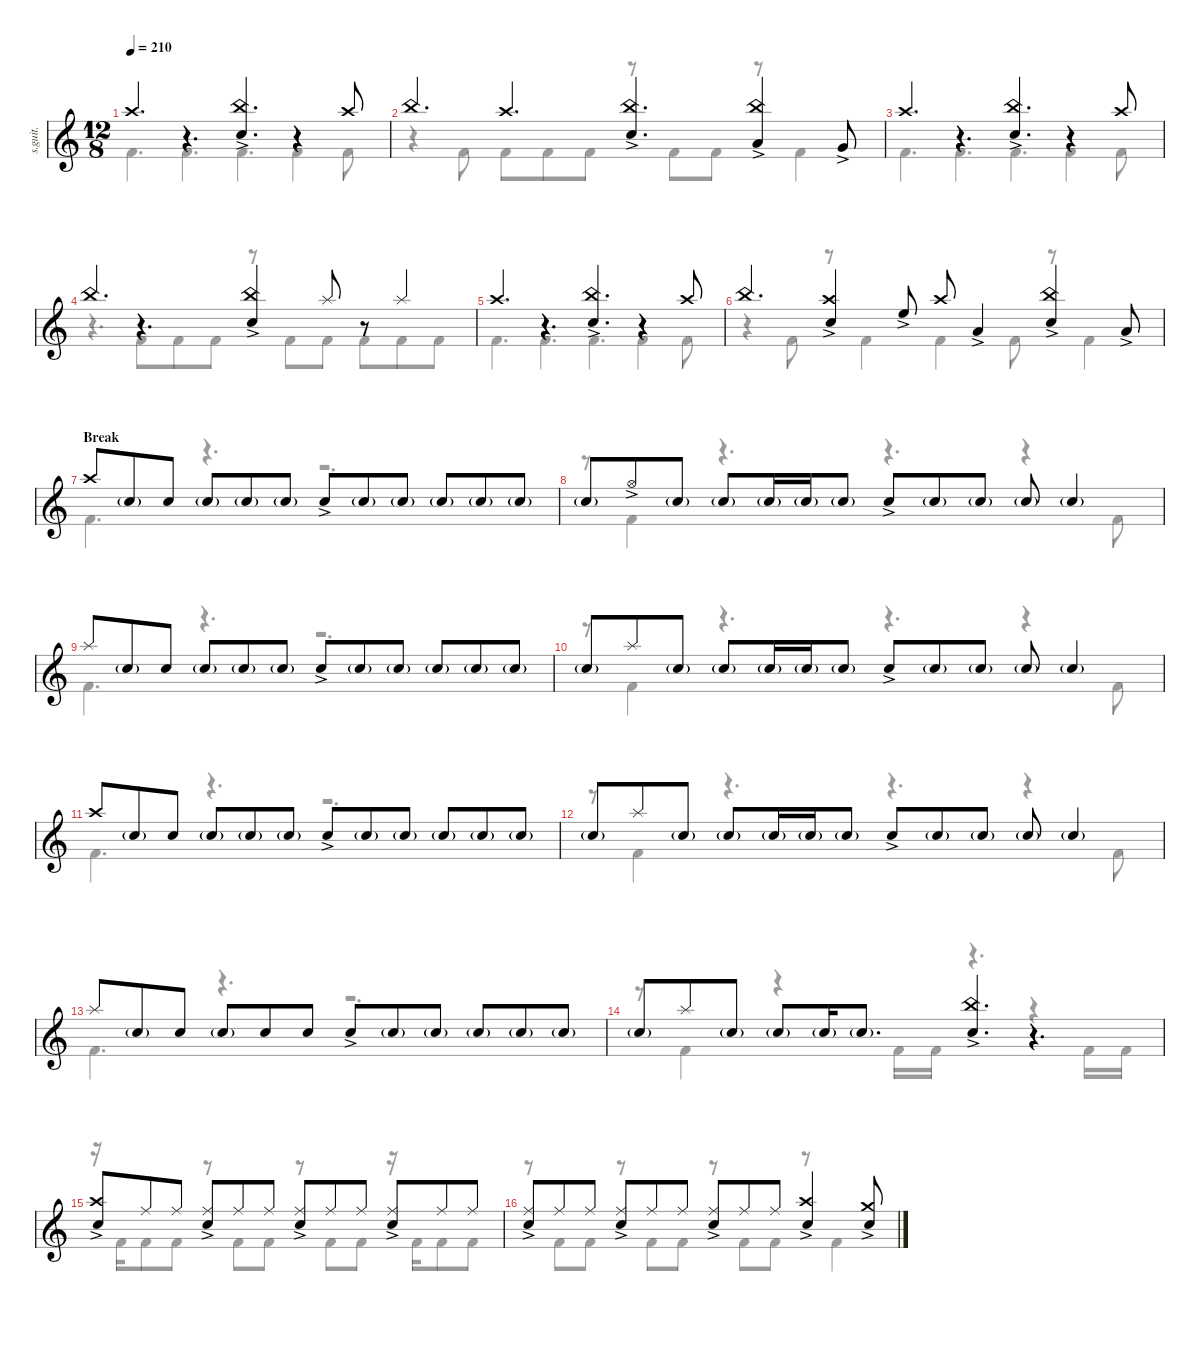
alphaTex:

\defaultSystemsLayout 4
\hideDynamics
\bracketExtendMode nobrackets
\track ("Percussion" "s.guit.") {instrument percussion}
\staff {score}
\articulation defaults
\voice
\ts (12 8)
\tempo 210
\clef g2
\ks c "Crash high (hit)".4{d lyrics (0 "") lyrics (1 "") lyrics (2 "") lyrics (3 "") lyrics (4 "") dy f}
r.4{d} ("China (hit)" "Snare (hit) 2"{ac}).4{d lyrics (0 "") lyrics (1 "") lyrics (2 "") lyrics (3 "") lyrics (4 "")} r.4 "Crash high (hit)".8{lyrics (0 "") lyrics (1 "") lyrics (2 "") lyrics (3 "") lyrics (4 "")} |
"China (hit)".4{d lyrics (0 "") lyrics (1 "") lyrics (2 "") lyrics (3 "") lyrics (4 "")} "Crash high (hit)".4{d lyrics (0 "") lyrics (1 "") lyrics (2 "") lyrics (3 "") lyrics (4 "")} ("China (hit)" "Snare (hit) 2"{ac}).4{d lyrics (0 "") lyrics (1 "") lyrics (2 "") lyrics (3 "") lyrics (4 "")} ("China (hit)" "Low Tom (hit)"{ac}).4{lyrics (0 "") lyrics (1 "") lyrics (2 "") lyrics (3 "") lyrics (4 "")} "Very Low Tom (hit)"{ac}.8{lyrics (0 "") lyrics (1 "") lyrics (2 "") lyrics (3 "") lyrics (4 "") dy mf} |
"Crash high (hit)".4{d lyrics (0 "") lyrics (1 "") lyrics (2 "") lyrics (3 "") lyrics (4 "") dy f} r.4{d} ("China (hit)" "Snare (hit) 2"{ac}).4{d lyrics (0 "") lyrics (1 "") lyrics (2 "") lyrics (3 "") lyrics (4 "")} r.4 "Crash high (hit)".8{lyrics (0 "") lyrics (1 "") lyrics (2 "") lyrics (3 "") lyrics (4 "")} |
"China (hit)".4{d lyrics (0 "") lyrics (1 "") lyrics (2 "") lyrics (3 "") lyrics (4 "")} r.4{d} ("China (hit)" "Snare (hit) 2"{ac}).4{lyrics (0 "") lyrics (1 "") lyrics (2 "") lyrics (3 "") lyrics (4 "")} "Splash (hit)".8{lyrics (0 "") lyrics (1 "") lyrics (2 "") lyrics (3 "") lyrics (4 "")} r.8 "Splash (hit)".4{lyrics (0 "") lyrics (1 "") lyrics (2 "") lyrics (3 "") lyrics (4 "")} |
"Crash high (hit)".4{d lyrics (0 "") lyrics (1 "") lyrics (2 "") lyrics (3 "") lyrics (4 "")} r.4{d} ("China (hit)" "Snare (hit) 2"{ac}).4{d lyrics (0 "") lyrics (1 "") lyrics (2 "") lyrics (3 "") lyrics (4 "")} r.4 "Crash high (hit)".8{lyrics (0 "") lyrics (1 "") lyrics (2 "") lyrics (3 "") lyrics (4 "")} |
"China (hit)".4{d lyrics (0 "") lyrics (1 "") lyrics (2 "") lyrics (3 "") lyrics (4 "")} ("Crash high (hit)" "Snare (hit) 2"{ac}).4{lyrics (0 "") lyrics (1 "") lyrics (2 "") lyrics (3 "") lyrics (4 "")} "High Floor Tom (hit)"{ac}.8{lyrics (0 "") lyrics (1 "") lyrics (2 "") lyrics (3 "") lyrics (4 "") dy mf} "Crash high (hit)".8{lyrics (0 "") lyrics (1 "") lyrics (2 "") lyrics (3 "") lyrics (4 "") dy f} "Low Tom (hit)"{ac}.4{lyrics (0 "") lyrics (1 "") lyrics (2 "") lyrics (3 "") lyrics (4 "") dy mf} ("China (hit)" "Snare (hit) 2"{ac}).4{lyrics (0 "") lyrics (1 "") lyrics (2 "") lyrics (3 "") lyrics (4 "") dy f} "Low Tom (hit)"{ac}.8{lyrics (0 "") lyrics (1 "") lyrics (2 "") lyrics (3 "") lyrics (4 "") dy mf} |
\section ("" "Break")
"Crash high (hit)".8{lyrics (0 "") lyrics (1 "") lyrics (2 "") lyrics (3 "") lyrics (4 "")} "Snare (hit) 2"{g}.8{lyrics (0 "") lyrics (1 "") lyrics (2 "") lyrics (3 "") lyrics (4 "") dy f} "Snare (hit) 2".8{lyrics (0 "") lyrics (1 "") lyrics (2 "") lyrics (3 "") lyrics (4 "") dy mf} "Snare (hit) 2"{g}.8{lyrics (0 "") lyrics (1 "") lyrics (2 "") lyrics (3 "") lyrics (4 "") dy f} "Snare (hit) 2"{g}.8{lyrics (0 "") lyrics (1 "") lyrics (2 "") lyrics (3 "") lyrics (4 "")} "Snare (hit) 2"{g}.8{lyrics (0 "") lyrics (1 "") lyrics (2 "") lyrics (3 "") lyrics (4 "")} "Snare (hit) 2"{ac}.8{lyrics (0 "") lyrics (1 "") lyrics (2 "") lyrics (3 "") lyrics (4 "") dy mp} "Snare (hit) 2"{g}.8{lyrics (0 "") lyrics (1 "") lyrics (2 "") lyrics (3 "") lyrics (4 "") dy f} "Snare (hit) 2"{g}.8{lyrics (0 "") lyrics (1 "") lyrics (2 "") lyrics (3 "") lyrics (4 "")} "Snare (hit) 2"{g}.8{lyrics (0 "") lyrics (1 "") lyrics (2 "") lyrics (3 "") lyrics (4 "")} "Snare (hit) 2"{g}.8{lyrics (0 "") lyrics (1 "") lyrics (2 "") lyrics (3 "") lyrics (4 "")} "Snare (hit) 2"{g}.8{lyrics (0 "") lyrics (1 "") lyrics (2 "") lyrics (3 "") lyrics (4 "")} |
"Snare (hit) 2"{g}.8{lyrics (0 "") lyrics (1 "") lyrics (2 "") lyrics (3 "") lyrics (4 "")} "Hi-Hat (open)"{ac}.8{lyrics (0 "") lyrics (1 "") lyrics (2 "") lyrics (3 "") lyrics (4 "") dy mp} "Snare (hit) 2"{g}.8{lyrics (0 "") lyrics (1 "") lyrics (2 "") lyrics (3 "") lyrics (4 "") dy f} "Snare (hit) 2"{g}.8{lyrics (0 "") lyrics (1 "") lyrics (2 "") lyrics (3 "") lyrics (4 "")} "Snare (hit) 2"{g}.16{lyrics (0 "") lyrics (1 "") lyrics (2 "") lyrics (3 "") lyrics (4 "")} "Snare (hit) 2"{g}.16{lyrics (0 "") lyrics (1 "") lyrics (2 "") lyrics (3 "") lyrics (4 "")} "Snare (hit) 2"{g}.8{lyrics (0 "") lyrics (1 "") lyrics (2 "") lyrics (3 "") lyrics (4 "")} "Snare (hit) 2"{ac}.8{lyrics (0 "") lyrics (1 "") lyrics (2 "") lyrics (3 "") lyrics (4 "") dy mp} "Snare (hit) 2"{g}.8{lyrics (0 "") lyrics (1 "") lyrics (2 "") lyrics (3 "") lyrics (4 "") dy f} "Snare (hit) 2"{g}.8{lyrics (0 "") lyrics (1 "") lyrics (2 "") lyrics (3 "") lyrics (4 "")} "Snare (hit) 2"{g}.8{lyrics (0 "") lyrics (1 "") lyrics (2 "") lyrics (3 "") lyrics (4 "")} "Snare (hit) 2"{g}.4{lyrics (0 "") lyrics (1 "") lyrics (2 "") lyrics (3 "") lyrics (4 "")} |
"Splash (hit)".8{lyrics (0 "") lyrics (1 "") lyrics (2 "") lyrics (3 "") lyrics (4 "") dy mf} "Snare (hit) 2"{g}.8{lyrics (0 "") lyrics (1 "") lyrics (2 "") lyrics (3 "") lyrics (4 "") dy f} "Snare (hit) 2".8{lyrics (0 "") lyrics (1 "") lyrics (2 "") lyrics (3 "") lyrics (4 "") dy mf} "Snare (hit) 2"{g}.8{lyrics (0 "") lyrics (1 "") lyrics (2 "") lyrics (3 "") lyrics (4 "") dy f} "Snare (hit) 2"{g}.8{lyrics (0 "") lyrics (1 "") lyrics (2 "") lyrics (3 "") lyrics (4 "")} "Snare (hit) 2"{g}.8{lyrics (0 "") lyrics (1 "") lyrics (2 "") lyrics (3 "") lyrics (4 "")} "Snare (hit) 2"{ac}.8{lyrics (0 "") lyrics (1 "") lyrics (2 "") lyrics (3 "") lyrics (4 "") dy mp} "Snare (hit) 2"{g}.8{lyrics (0 "") lyrics (1 "") lyrics (2 "") lyrics (3 "") lyrics (4 "") dy f} "Snare (hit) 2"{g}.8{lyrics (0 "") lyrics (1 "") lyrics (2 "") lyrics (3 "") lyrics (4 "")} "Snare (hit) 2"{g}.8{lyrics (0 "") lyrics (1 "") lyrics (2 "") lyrics (3 "") lyrics (4 "")} "Snare (hit) 2"{g}.8{lyrics (0 "") lyrics (1 "") lyrics (2 "") lyrics (3 "") lyrics (4 "")} "Snare (hit) 2"{g}.8{lyrics (0 "") lyrics (1 "") lyrics (2 "") lyrics (3 "") lyrics (4 "")} |
"Snare (hit) 2"{g}.8{lyrics (0 "") lyrics (1 "") lyrics (2 "") lyrics (3 "") lyrics (4 "")} "Splash (hit)".8{lyrics (0 "") lyrics (1 "") lyrics (2 "") lyrics (3 "") lyrics (4 "") dy mf} "Snare (hit) 2"{g}.8{lyrics (0 "") lyrics (1 "") lyrics (2 "") lyrics (3 "") lyrics (4 "") dy f} "Snare (hit) 2"{g}.8{lyrics (0 "") lyrics (1 "") lyrics (2 "") lyrics (3 "") lyrics (4 "")} "Snare (hit) 2"{g}.16{lyrics (0 "") lyrics (1 "") lyrics (2 "") lyrics (3 "") lyrics (4 "")} "Snare (hit) 2"{g}.16{lyrics (0 "") lyrics (1 "") lyrics (2 "") lyrics (3 "") lyrics (4 "")} "Snare (hit) 2"{g}.8{lyrics (0 "") lyrics (1 "") lyrics (2 "") lyrics (3 "") lyrics (4 "")} "Snare (hit) 2"{ac}.8{lyrics (0 "") lyrics (1 "") lyrics (2 "") lyrics (3 "") lyrics (4 "") dy mp} "Snare (hit) 2"{g}.8{lyrics (0 "") lyrics (1 "") lyrics (2 "") lyrics (3 "") lyrics (4 "") dy f} "Snare (hit) 2"{g}.8{lyrics (0 "") lyrics (1 "") lyrics (2 "") lyrics (3 "") lyrics (4 "")} "Snare (hit) 2"{g}.8{lyrics (0 "") lyrics (1 "") lyrics (2 "") lyrics (3 "") lyrics (4 "")} "Snare (hit) 2"{g}.4{lyrics (0 "") lyrics (1 "") lyrics (2 "") lyrics (3 "") lyrics (4 "")} |
"Crash high (hit)".8{lyrics (0 "") lyrics (1 "") lyrics (2 "") lyrics (3 "") lyrics (4 "") dy mf} "Snare (hit) 2"{g}.8{lyrics (0 "") lyrics (1 "") lyrics (2 "") lyrics (3 "") lyrics (4 "") dy f} "Snare (hit) 2".8{lyrics (0 "") lyrics (1 "") lyrics (2 "") lyrics (3 "") lyrics (4 "") dy mf} "Snare (hit) 2"{g}.8{lyrics (0 "") lyrics (1 "") lyrics (2 "") lyrics (3 "") lyrics (4 "") dy f} "Snare (hit) 2"{g}.8{lyrics (0 "") lyrics (1 "") lyrics (2 "") lyrics (3 "") lyrics (4 "")} "Snare (hit) 2"{g}.8{lyrics (0 "") lyrics (1 "") lyrics (2 "") lyrics (3 "") lyrics (4 "")} "Snare (hit) 2"{ac}.8{lyrics (0 "") lyrics (1 "") lyrics (2 "") lyrics (3 "") lyrics (4 "") dy mp} "Snare (hit) 2"{g}.8{lyrics (0 "") lyrics (1 "") lyrics (2 "") lyrics (3 "") lyrics (4 "") dy f} "Snare (hit) 2"{g}.8{lyrics (0 "") lyrics (1 "") lyrics (2 "") lyrics (3 "") lyrics (4 "")} "Snare (hit) 2"{g}.8{lyrics (0 "") lyrics (1 "") lyrics (2 "") lyrics (3 "") lyrics (4 "")} "Snare (hit) 2"{g}.8{lyrics (0 "") lyrics (1 "") lyrics (2 "") lyrics (3 "") lyrics (4 "")} "Snare (hit) 2"{g}.8{lyrics (0 "") lyrics (1 "") lyrics (2 "") lyrics (3 "") lyrics (4 "")} |
"Snare (hit) 2"{g}.8{lyrics (0 "") lyrics (1 "") lyrics (2 "") lyrics (3 "") lyrics (4 "")} "Splash (hit)".8{lyrics (0 "") lyrics (1 "") lyrics (2 "") lyrics (3 "") lyrics (4 "") dy mf} "Snare (hit) 2"{g}.8{lyrics (0 "") lyrics (1 "") lyrics (2 "") lyrics (3 "") lyrics (4 "") dy f} "Snare (hit) 2"{g}.8{lyrics (0 "") lyrics (1 "") lyrics (2 "") lyrics (3 "") lyrics (4 "")} "Snare (hit) 2"{g}.16{lyrics (0 "") lyrics (1 "") lyrics (2 "") lyrics (3 "") lyrics (4 "")} "Snare (hit) 2"{g}.16{lyrics (0 "") lyrics (1 "") lyrics (2 "") lyrics (3 "") lyrics (4 "")} "Snare (hit) 2"{g}.8{lyrics (0 "") lyrics (1 "") lyrics (2 "") lyrics (3 "") lyrics (4 "")} "Snare (hit) 2"{ac}.8{lyrics (0 "") lyrics (1 "") lyrics (2 "") lyrics (3 "") lyrics (4 "") dy mp} "Snare (hit) 2"{g}.8{lyrics (0 "") lyrics (1 "") lyrics (2 "") lyrics (3 "") lyrics (4 "") dy f} "Snare (hit) 2"{g}.8{lyrics (0 "") lyrics (1 "") lyrics (2 "") lyrics (3 "") lyrics (4 "")} "Snare (hit) 2"{g}.8{lyrics (0 "") lyrics (1 "") lyrics (2 "") lyrics (3 "") lyrics (4 "")} "Snare (hit) 2"{g}.4{lyrics (0 "") lyrics (1 "") lyrics (2 "") lyrics (3 "") lyrics (4 "")} |
"Splash (hit)".8{lyrics (0 "") lyrics (1 "") lyrics (2 "") lyrics (3 "") lyrics (4 "") dy mf} "Snare (hit) 2"{g}.8{lyrics (0 "") lyrics (1 "") lyrics (2 "") lyrics (3 "") lyrics (4 "") dy f} "Snare (hit) 2".8{lyrics (0 "") lyrics (1 "") lyrics (2 "") lyrics (3 "") lyrics (4 "") dy mf} "Snare (hit) 2"{g}.8{lyrics (0 "") lyrics (1 "") lyrics (2 "") lyrics (3 "") lyrics (4 "") dy f} "Snare (hit) 2".8{lyrics (0 "") lyrics (1 "") lyrics (2 "") lyrics (3 "") lyrics (4 "") dy mf} "Snare (hit) 2".8{lyrics (0 "") lyrics (1 "") lyrics (2 "") lyrics (3 "") lyrics (4 "")} "Snare (hit) 2"{ac}.8{lyrics (0 "") lyrics (1 "") lyrics (2 "") lyrics (3 "") lyrics (4 "") dy mp} "Snare (hit) 2"{g}.8{lyrics (0 "") lyrics (1 "") lyrics (2 "") lyrics (3 "") lyrics (4 "") dy f} "Snare (hit) 2"{g}.8{lyrics (0 "") lyrics (1 "") lyrics (2 "") lyrics (3 "") lyrics (4 "")} "Snare (hit) 2"{g}.8{lyrics (0 "") lyrics (1 "") lyrics (2 "") lyrics (3 "") lyrics (4 "")} "Snare (hit) 2"{g}.8{lyrics (0 "") lyrics (1 "") lyrics (2 "") lyrics (3 "") lyrics (4 "")} "Snare (hit) 2"{g}.8{lyrics (0 "") lyrics (1 "") lyrics (2 "") lyrics (3 "") lyrics (4 "")} |
"Snare (hit) 2"{g}.8{lyrics (0 "") lyrics (1 "") lyrics (2 "") lyrics (3 "") lyrics (4 "")} "Splash (hit)".8{lyrics (0 "") lyrics (1 "") lyrics (2 "") lyrics (3 "") lyrics (4 "") dy mf} "Snare (hit) 2"{g}.8{lyrics (0 "") lyrics (1 "") lyrics (2 "") lyrics (3 "") lyrics (4 "") dy f} "Snare (hit) 2"{g}.8{lyrics (0 "") lyrics (1 "") lyrics (2 "") lyrics (3 "") lyrics (4 "")} "Snare (hit) 2"{g}.16{lyrics (0 "") lyrics (1 "") lyrics (2 "") lyrics (3 "") lyrics (4 "")} "Snare (hit) 2"{g}.8{d lyrics (0 "") lyrics (1 "") lyrics (2 "") lyrics (3 "") lyrics (4 "")} ("Snare (hit) 2"{ac} "China (hit)").4{d lyrics (0 "") lyrics (1 "") lyrics (2 "") lyrics (3 "") lyrics (4 "") dy mf} r.4{d} |
("Crash high (hit)" "Snare (hit) 2"{ac}).8{lyrics (0 "") lyrics (1 "") lyrics (2 "") lyrics (3 "") lyrics (4 "") dy f} "Ride (middle)".8{lyrics (0 "") lyrics (1 "") lyrics (2 "") lyrics (3 "") lyrics (4 "")} "Ride (middle)".8{lyrics (0 "") lyrics (1 "") lyrics (2 "") lyrics (3 "") lyrics (4 "")} ("Ride (middle)" "Snare (hit) 2"{ac}).8{lyrics (0 "") lyrics (1 "") lyrics (2 "") lyrics (3 "") lyrics (4 "")} "Ride (middle)".8{lyrics (0 "") lyrics (1 "") lyrics (2 "") lyrics (3 "") lyrics (4 "")} "Ride (middle)".8{lyrics (0 "") lyrics (1 "") lyrics (2 "") lyrics (3 "") lyrics (4 "")} ("Ride (middle)" "Snare (hit) 2"{ac}).8{lyrics (0 "") lyrics (1 "") lyrics (2 "") lyrics (3 "") lyrics (4 "")} "Ride (middle)".8{lyrics (0 "") lyrics (1 "") lyrics (2 "") lyrics (3 "") lyrics (4 "")} "Ride (middle)".8{lyrics (0 "") lyrics (1 "") lyrics (2 "") lyrics (3 "") lyrics (4 "")} ("Ride (middle)" "Snare (hit) 2"{ac}).8{lyrics (0 "") lyrics (1 "") lyrics (2 "") lyrics (3 "") lyrics (4 "")} "Ride (middle)".8{lyrics (0 "") lyrics (1 "") lyrics (2 "") lyrics (3 "") lyrics (4 "")} "Ride (middle)".8{lyrics (0 "") lyrics (1 "") lyrics (2 "") lyrics (3 "") lyrics (4 "")} |
("Ride (middle)" "Snare (hit) 2"{ac}).8{lyrics (0 "") lyrics (1 "") lyrics (2 "") lyrics (3 "") lyrics (4 "")} "Ride (middle)".8{lyrics (0 "") lyrics (1 "") lyrics (2 "") lyrics (3 "") lyrics (4 "")} "Ride (middle)".8{lyrics (0 "") lyrics (1 "") lyrics (2 "") lyrics (3 "") lyrics (4 "")} ("Ride (middle)" "Snare (hit) 2"{ac}).8{lyrics (0 "") lyrics (1 "") lyrics (2 "") lyrics (3 "") lyrics (4 "")} "Ride (middle)".8{lyrics (0 "") lyrics (1 "") lyrics (2 "") lyrics (3 "") lyrics (4 "")} "Ride (middle)".8{lyrics (0 "") lyrics (1 "") lyrics (2 "") lyrics (3 "") lyrics (4 "")} ("Ride (middle)" "Snare (hit) 2"{ac}).8{lyrics (0 "") lyrics (1 "") lyrics (2 "") lyrics (3 "") lyrics (4 "")} "Ride (middle)".8{lyrics (0 "") lyrics (1 "") lyrics (2 "") lyrics (3 "") lyrics (4 "")} "Ride (middle)".8{lyrics (0 "") lyrics (1 "") lyrics (2 "") lyrics (3 "") lyrics (4 "")} ("Snare (hit) 2"{ac} "Crash high (hit)").4{lyrics (0 "") lyrics (1 "") lyrics (2 "") lyrics (3 "") lyrics (4 "")} ("Crash medium (hit)" "Snare (hit) 2"{ac}).8{lyrics (0 "") lyrics (1 "") lyrics (2 "") lyrics (3 "") lyrics (4 "")}
\voice
\clef g2
\ottava regular
\simile none
\ks c "Kick (hit) 2".4{d lyrics (0 "") lyrics (1 "") lyrics (2 "") lyrics (3 "") lyrics (4 "") dy f} "Kick (hit) 2".4{d lyrics (0 "") lyrics (1 "") lyrics (2 "") lyrics (3 "") lyrics (4 "")} "Kick (hit) 2".4{d lyrics (0 "") lyrics (1 "") lyrics (2 "") lyrics (3 "") lyrics (4 "")} "Kick (hit) 2".4{lyrics (0 "") lyrics (1 "") lyrics (2 "") lyrics (3 "") lyrics (4 "")} "Kick (hit) 2".8{lyrics (0 "") lyrics (1 "") lyrics (2 "") lyrics (3 "") lyrics (4 "")}
|
r.4 "Kick (hit) 2".8{lyrics (0 "") lyrics (1 "") lyrics (2 "") lyrics (3 "") lyrics (4 "")} "Kick (hit) 2".8{lyrics (0 "") lyrics (1 "") lyrics (2 "") lyrics (3 "") lyrics (4 "")} "Kick (hit) 2".8{lyrics (0 "") lyrics (1 "") lyrics (2 "") lyrics (3 "") lyrics (4 "")} "Kick (hit) 2".8{lyrics (0 "") lyrics (1 "") lyrics (2 "") lyrics (3 "") lyrics (4 "")} r.8 "Kick (hit) 2".8{lyrics (0 "") lyrics (1 "") lyrics (2 "") lyrics (3 "") lyrics (4 "")} "Kick (hit) 2".8{lyrics (0 "") lyrics (1 "") lyrics (2 "") lyrics (3 "") lyrics (4 "")} r.8 "Kick (hit) 2".4{lyrics (0 "") lyrics (1 "") lyrics (2 "") lyrics (3 "") lyrics (4 "")} |
"Kick (hit) 2".4{d lyrics (0 "") lyrics (1 "") lyrics (2 "") lyrics (3 "") lyrics (4 "")} "Kick (hit) 2".4{d lyrics (0 "") lyrics (1 "") lyrics (2 "") lyrics (3 "") lyrics (4 "")} "Kick (hit) 2".4{d lyrics (0 "") lyrics (1 "") lyrics (2 "") lyrics (3 "") lyrics (4 "")} "Kick (hit) 2".4{lyrics (0 "") lyrics (1 "") lyrics (2 "") lyrics (3 "") lyrics (4 "")} "Kick (hit) 2".8{lyrics (0 "") lyrics (1 "") lyrics (2 "") lyrics (3 "") lyrics (4 "")} |
r.4{d} "Kick (hit) 2".8{lyrics (0 "") lyrics (1 "") lyrics (2 "") lyrics (3 "") lyrics (4 "")} "Kick (hit) 2".8{lyrics (0 "") lyrics (1 "") lyrics (2 "") lyrics (3 "") lyrics (4 "")} "Kick (hit) 2".8{lyrics (0 "") lyrics (1 "") lyrics (2 "") lyrics (3 "") lyrics (4 "")} r.8 "Kick (hit) 2".8{lyrics (0 "") lyrics (1 "") lyrics (2 "") lyrics (3 "") lyrics (4 "")} "Kick (hit) 2".8{lyrics (0 "") lyrics (1 "") lyrics (2 "") lyrics (3 "") lyrics (4 "")} "Kick (hit) 2".8{lyrics (0 "") lyrics (1 "") lyrics (2 "") lyrics (3 "") lyrics (4 "")} "Kick (hit) 2".8{lyrics (0 "") lyrics (1 "") lyrics (2 "") lyrics (3 "") lyrics (4 "")} "Kick (hit) 2".8{lyrics (0 "") lyrics (1 "") lyrics (2 "") lyrics (3 "") lyrics (4 "")} |
"Kick (hit) 2".4{d lyrics (0 "") lyrics (1 "") lyrics (2 "") lyrics (3 "") lyrics (4 "")} "Kick (hit) 2".4{d lyrics (0 "") lyrics (1 "") lyrics (2 "") lyrics (3 "") lyrics (4 "")} "Kick (hit) 2".4{d lyrics (0 "") lyrics (1 "") lyrics (2 "") lyrics (3 "") lyrics (4 "")} "Kick (hit) 2".4{lyrics (0 "") lyrics (1 "") lyrics (2 "") lyrics (3 "") lyrics (4 "")} "Kick (hit) 2".8{lyrics (0 "") lyrics (1 "") lyrics (2 "") lyrics (3 "") lyrics (4 "")} |
r.4 "Kick (hit) 2".8{lyrics (0 "") lyrics (1 "") lyrics (2 "") lyrics (3 "") lyrics (4 "")} r.8 "Kick (hit) 2".4{lyrics (0 "") lyrics (1 "") lyrics (2 "") lyrics (3 "") lyrics (4 "")} "Kick (hit) 2".4{lyrics (0 "") lyrics (1 "") lyrics (2 "") lyrics (3 "") lyrics (4 "")} "Kick (hit) 2".8{lyrics (0 "") lyrics (1 "") lyrics (2 "") lyrics (3 "") lyrics (4 "")} r.8 "Kick (hit) 2".4{lyrics (0 "") lyrics (1 "") lyrics (2 "") lyrics (3 "") lyrics (4 "")} |
"Kick (hit) 2".4{d lyrics (0 "") lyrics (1 "") lyrics (2 "") lyrics (3 "") lyrics (4 "") dy mf} r.4{d} r.2{d} |
r.8 "Kick (hit) 2".4{lyrics (0 "") lyrics (1 "") lyrics (2 "") lyrics (3 "") lyrics (4 "")} r.4{d} r.4{d} r.4 "Kick (hit) 2".8{lyrics (0 "") lyrics (1 "") lyrics (2 "") lyrics (3 "") lyrics (4 "")} |
"Kick (hit) 2".4{d lyrics (0 "") lyrics (1 "") lyrics (2 "") lyrics (3 "") lyrics (4 "")} r.4{d} r.2{d} |
r.8 "Kick (hit) 2".4{lyrics (0 "") lyrics (1 "") lyrics (2 "") lyrics (3 "") lyrics (4 "")} r.4{d} r.4{d} r.4 "Kick (hit) 2".8{lyrics (0 "") lyrics (1 "") lyrics (2 "") lyrics (3 "") lyrics (4 "")} |
"Kick (hit) 2".4{d lyrics (0 "") lyrics (1 "") lyrics (2 "") lyrics (3 "") lyrics (4 "")} r.4{d} r.2{d} |
r.8 "Kick (hit) 2".4{lyrics (0 "") lyrics (1 "") lyrics (2 "") lyrics (3 "") lyrics (4 "")} r.4{d} r.4{d} r.4 "Kick (hit) 2".8{lyrics (0 "") lyrics (1 "") lyrics (2 "") lyrics (3 "") lyrics (4 "")} |
"Kick (hit) 2".4{d lyrics (0 "") lyrics (1 "") lyrics (2 "") lyrics (3 "") lyrics (4 "")} r.4{d} r.2{d} |
r.8 "Kick (hit) 2".4{lyrics (0 "") lyrics (1 "") lyrics (2 "") lyrics (3 "") lyrics (4 "")} r.4 "Kick (hit) 2".16{lyrics (0 "") lyrics (1 "") lyrics (2 "") lyrics (3 "") lyrics (4 "")} "Kick (hit) 2".16{lyrics (0 "") lyrics (1 "") lyrics (2 "") lyrics (3 "") lyrics (4 "")} r.4{d} r.4 "Kick (hit) 2".16{lyrics (0 "") lyrics (1 "") lyrics (2 "") lyrics (3 "") lyrics (4 "")} "Kick (hit) 2".16{lyrics (0 "") lyrics (1 "") lyrics (2 "") lyrics (3 "") lyrics (4 "")} |
r.16 "Kick (hit) 2".16{lyrics (0 "") lyrics (1 "") lyrics (2 "") lyrics (3 "") lyrics (4 "") dy f} "Kick (hit) 2".8{lyrics (0 "") lyrics (1 "") lyrics (2 "") lyrics (3 "") lyrics (4 "")} "Kick (hit) 2".8{lyrics (0 "") lyrics (1 "") lyrics (2 "") lyrics (3 "") lyrics (4 "")} r.8 "Kick (hit) 2".8{lyrics (0 "") lyrics (1 "") lyrics (2 "") lyrics (3 "") lyrics (4 "")} "Kick (hit) 2".8{lyrics (0 "") lyrics (1 "") lyrics (2 "") lyrics (3 "") lyrics (4 "")} r.8 "Kick (hit) 2".8{lyrics (0 "") lyrics (1 "") lyrics (2 "") lyrics (3 "") lyrics (4 "")} "Kick (hit) 2".8{lyrics (0 "") lyrics (1 "") lyrics (2 "") lyrics (3 "") lyrics (4 "")} r.16 "Kick (hit) 2".16{lyrics (0 "") lyrics (1 "") lyrics (2 "") lyrics (3 "") lyrics (4 "")} "Kick (hit) 2".8{lyrics (0 "") lyrics (1 "") lyrics (2 "") lyrics (3 "") lyrics (4 "")} "Kick (hit) 2".8{lyrics (0 "") lyrics (1 "") lyrics (2 "") lyrics (3 "") lyrics (4 "")} |
r.8 "Kick (hit) 2".8{lyrics (0 "") lyrics (1 "") lyrics (2 "") lyrics (3 "") lyrics (4 "")} "Kick (hit) 2".8{lyrics (0 "") lyrics (1 "") lyrics (2 "") lyrics (3 "") lyrics (4 "")} r.8 "Kick (hit) 2".8{lyrics (0 "") lyrics (1 "") lyrics (2 "") lyrics (3 "") lyrics (4 "")} "Kick (hit) 2".8{lyrics (0 "") lyrics (1 "") lyrics (2 "") lyrics (3 "") lyrics (4 "")} r.8 "Kick (hit) 2".8{lyrics (0 "") lyrics (1 "") lyrics (2 "") lyrics (3 "") lyrics (4 "")} "Kick (hit) 2".8{lyrics (0 "") lyrics (1 "") lyrics (2 "") lyrics (3 "") lyrics (4 "")} r.8 "Kick (hit) 2".4{lyrics (0 "") lyrics (1 "") lyrics (2 "") lyrics (3 "") lyrics (4 "")}
